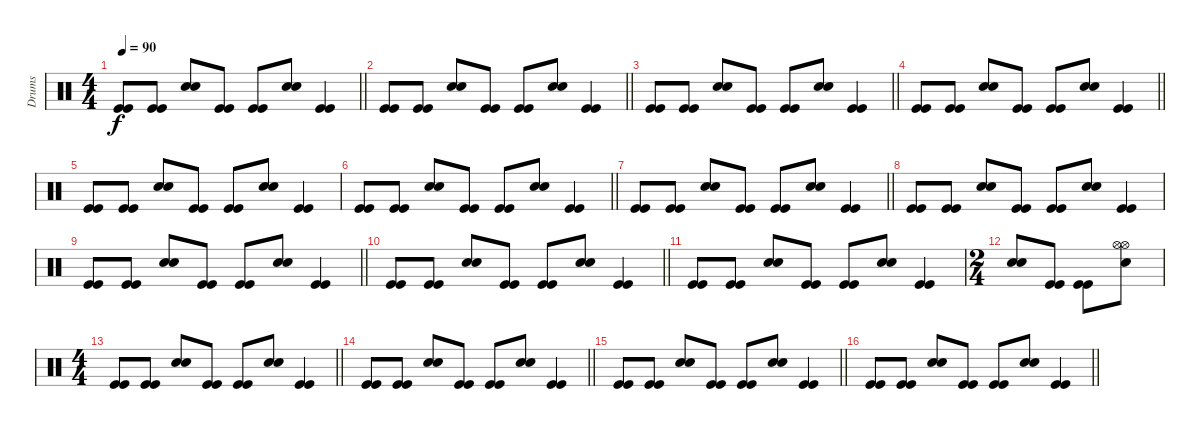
\track ("Drums" "Drums") {instrument percussion}
\staff {score}
\articulation defaults
\ts (4 4)
\tempo 90
\clef neutral
\barLineRight lightlight
\ks c
("Kick (hit)" "Kick (hit)").8{dy f} ("Kick (hit)" "Kick (hit)").8 ("Electric Snare (hit)" "Electric Snare (hit)").8 ("Kick (hit)" "Kick (hit)").8 ("Kick (hit)" "Kick (hit)").8 ("Electric Snare (hit)" "Electric Snare (hit)").8 ("Kick (hit)" "Kick (hit)").4 |
\barLineRight lightlight
("Kick (hit)" "Kick (hit)").8 ("Kick (hit)" "Kick (hit)").8 ("Electric Snare (hit)" "Electric Snare (hit)").8 ("Kick (hit)" "Kick (hit)").8 ("Kick (hit)" "Kick (hit)").8 ("Electric Snare (hit)" "Electric Snare (hit)").8 ("Kick (hit)" "Kick (hit)").4 |
\barLineRight lightlight
("Kick (hit)" "Kick (hit)").8 ("Kick (hit)" "Kick (hit)").8 ("Electric Snare (hit)" "Electric Snare (hit)").8 ("Kick (hit)" "Kick (hit)").8 ("Kick (hit)" "Kick (hit)").8 ("Electric Snare (hit)" "Electric Snare (hit)").8 ("Kick (hit)" "Kick (hit)").4 |
\barLineRight lightlight
("Kick (hit)" "Kick (hit)").8 ("Kick (hit)" "Kick (hit)").8 ("Electric Snare (hit)" "Electric Snare (hit)").8 ("Kick (hit)" "Kick (hit)").8 ("Kick (hit)" "Kick (hit)").8 ("Electric Snare (hit)" "Electric Snare (hit)").8 ("Kick (hit)" "Kick (hit)").4 |
("Kick (hit)" "Kick (hit)").8 ("Kick (hit)" "Kick (hit)").8 ("Electric Snare (hit)" "Electric Snare (hit)").8 ("Kick (hit)" "Kick (hit)").8 ("Kick (hit)" "Kick (hit)").8 ("Electric Snare (hit)" "Electric Snare (hit)").8 ("Kick (hit)" "Kick (hit)").4 |
\barLineRight lightlight
("Kick (hit)" "Kick (hit)").8 ("Kick (hit)" "Kick (hit)").8 ("Electric Snare (hit)" "Electric Snare (hit)").8 ("Kick (hit)" "Kick (hit)").8 ("Kick (hit)" "Kick (hit)").8 ("Electric Snare (hit)" "Electric Snare (hit)").8 ("Kick (hit)" "Kick (hit)").4 |
\barLineRight lightlight
("Kick (hit)" "Kick (hit)").8 ("Kick (hit)" "Kick (hit)").8 ("Electric Snare (hit)" "Electric Snare (hit)").8 ("Kick (hit)" "Kick (hit)").8 ("Kick (hit)" "Kick (hit)").8 ("Electric Snare (hit)" "Electric Snare (hit)").8 ("Kick (hit)" "Kick (hit)").4 |
("Kick (hit)" "Kick (hit)").8 ("Kick (hit)" "Kick (hit)").8 ("Electric Snare (hit)" "Electric Snare (hit)").8 ("Kick (hit)" "Kick (hit)").8 ("Kick (hit)" "Kick (hit)").8 ("Electric Snare (hit)" "Electric Snare (hit)").8 ("Kick (hit)" "Kick (hit)").4 |
\barLineRight lightlight
("Kick (hit)" "Kick (hit)").8 ("Kick (hit)" "Kick (hit)").8 ("Electric Snare (hit)" "Electric Snare (hit)").8 ("Kick (hit)" "Kick (hit)").8 ("Kick (hit)" "Kick (hit)").8 ("Electric Snare (hit)" "Electric Snare (hit)").8 ("Kick (hit)" "Kick (hit)").4 |
\barLineRight lightlight
("Kick (hit)" "Kick (hit)").8 ("Kick (hit)" "Kick (hit)").8 ("Electric Snare (hit)" "Electric Snare (hit)").8 ("Kick (hit)" "Kick (hit)").8 ("Kick (hit)" "Kick (hit)").8 ("Electric Snare (hit)" "Electric Snare (hit)").8 ("Kick (hit)" "Kick (hit)").4 |
("Kick (hit)" "Kick (hit)").8 ("Kick (hit)" "Kick (hit)").8 ("Electric Snare (hit)" "Electric Snare (hit)").8 ("Kick (hit)" "Kick (hit)").8 ("Kick (hit)" "Kick (hit)").8 ("Electric Snare (hit)" "Electric Snare (hit)").8 ("Kick (hit)" "Kick (hit)").4 |
\ts (2 4)
("Electric Snare (hit)" "Electric Snare (hit)").8 ("Kick (hit)" "Kick (hit)").8 ("Kick (hit)" "Kick (hit)").8 ("Hi-Hat (open)" "Electric Snare (hit)" "Hi-Hat (open)").8 |
\ts (4 4)
\barLineRight lightlight
("Kick (hit)" "Kick (hit)").8 ("Kick (hit)" "Kick (hit)").8 ("Electric Snare (hit)" "Electric Snare (hit)").8 ("Kick (hit)" "Kick (hit)").8 ("Kick (hit)" "Kick (hit)").8 ("Electric Snare (hit)" "Electric Snare (hit)").8 ("Kick (hit)" "Kick (hit)").4 |
\barLineRight lightlight
("Kick (hit)" "Kick (hit)").8 ("Kick (hit)" "Kick (hit)").8 ("Electric Snare (hit)" "Electric Snare (hit)").8 ("Kick (hit)" "Kick (hit)").8 ("Kick (hit)" "Kick (hit)").8 ("Electric Snare (hit)" "Electric Snare (hit)").8 ("Kick (hit)" "Kick (hit)").4 |
\barLineRight lightlight
("Kick (hit)" "Kick (hit)").8 ("Kick (hit)" "Kick (hit)").8 ("Electric Snare (hit)" "Electric Snare (hit)").8 ("Kick (hit)" "Kick (hit)").8 ("Kick (hit)" "Kick (hit)").8 ("Electric Snare (hit)" "Electric Snare (hit)").8 ("Kick (hit)" "Kick (hit)").4 |
\barLineRight lightlight
("Kick (hit)" "Kick (hit)").8 ("Kick (hit)" "Kick (hit)").8 ("Electric Snare (hit)" "Electric Snare (hit)").8 ("Kick (hit)" "Kick (hit)").8 ("Kick (hit)" "Kick (hit)").8 ("Electric Snare (hit)" "Electric Snare (hit)").8 ("Kick (hit)" "Kick (hit)").4
